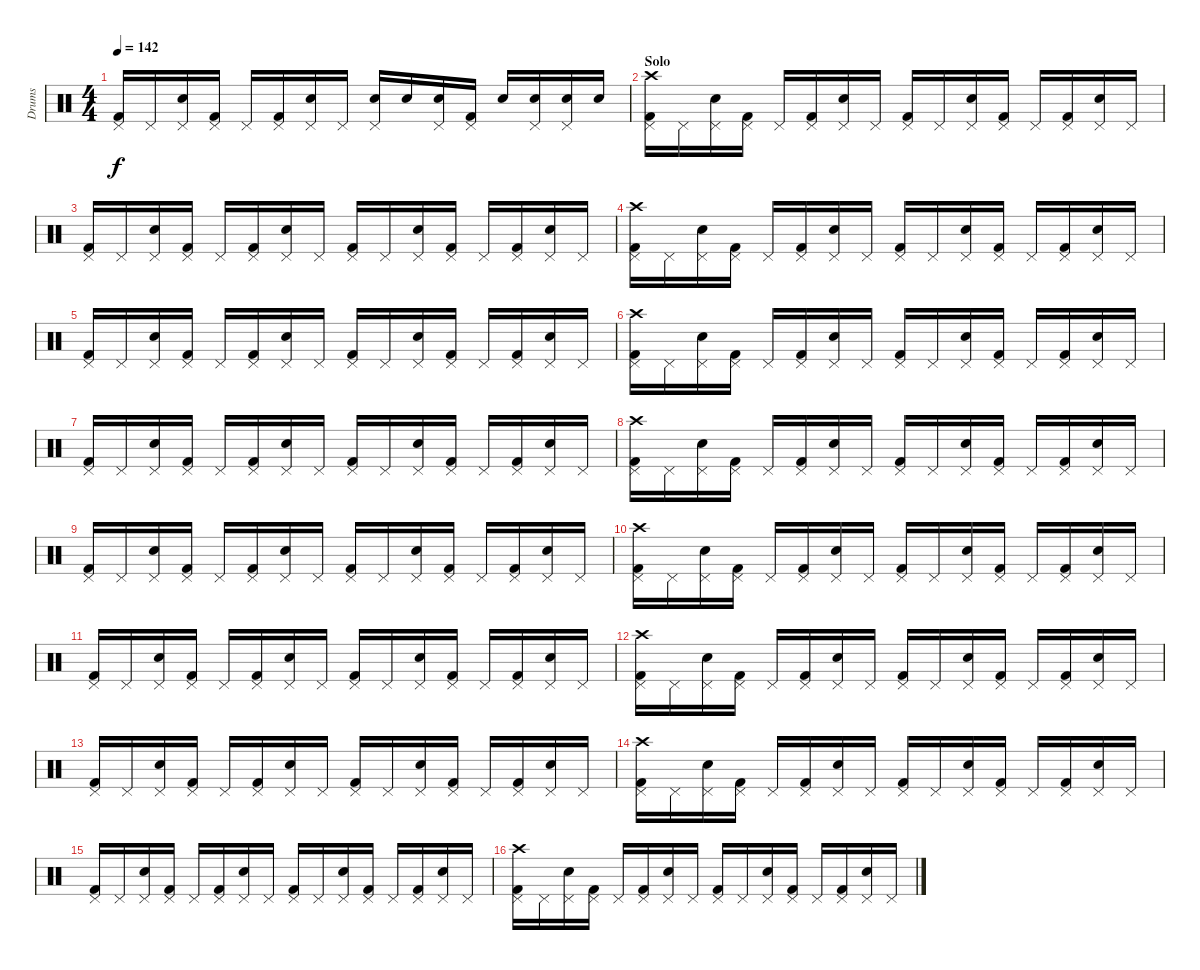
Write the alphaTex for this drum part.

\track ("Drums" "Drums") {instrument percussion}
\staff {score}
\articulation defaults
\ts (4 4)
\tempo 142
\clef neutral
\ks c
("Kick (hit) 2" "Pedal Hi-Hat (hit)").16{dy f} "Pedal Hi-Hat (hit)".16 ("Snare (hit) 2" "Pedal Hi-Hat (hit)").16 ("Kick (hit) 2" "Pedal Hi-Hat (hit)").16 "Pedal Hi-Hat (hit)".16 ("Kick (hit) 2" "Pedal Hi-Hat (hit)").16 ("Snare (hit) 2" "Pedal Hi-Hat (hit)").16 "Pedal Hi-Hat (hit)".16 ("Snare (hit) 2" "Pedal Hi-Hat (hit)").16 "Snare (hit) 2".16 ("Snare (hit) 2" "Pedal Hi-Hat (hit)").16 ("Kick (hit) 2" "Pedal Hi-Hat (hit)").16 "Snare (hit) 2".16 ("Snare (hit) 2" "Pedal Hi-Hat (hit)").16 ("Snare (hit) 2" "Pedal Hi-Hat (hit)").16 "Snare (hit) 2".16 |
\section ("" "Solo")
("Kick (hit) 2" "Pedal Hi-Hat (hit)" "Crash high (hit)").16 "Pedal Hi-Hat (hit)".16 ("Snare (hit) 2" "Pedal Hi-Hat (hit)").16 ("Kick (hit) 2" "Pedal Hi-Hat (hit)").16 "Pedal Hi-Hat (hit)".16 ("Kick (hit) 2" "Pedal Hi-Hat (hit)").16 ("Snare (hit) 2" "Pedal Hi-Hat (hit)").16 "Pedal Hi-Hat (hit)".16 ("Kick (hit) 2" "Pedal Hi-Hat (hit)").16 "Pedal Hi-Hat (hit)".16 ("Snare (hit) 2" "Pedal Hi-Hat (hit)").16 ("Kick (hit) 2" "Pedal Hi-Hat (hit)").16 "Pedal Hi-Hat (hit)".16 ("Kick (hit) 2" "Pedal Hi-Hat (hit)").16 ("Snare (hit) 2" "Pedal Hi-Hat (hit)").16 "Pedal Hi-Hat (hit)".16 |
("Kick (hit) 2" "Pedal Hi-Hat (hit)").16 "Pedal Hi-Hat (hit)".16 ("Snare (hit) 2" "Pedal Hi-Hat (hit)").16 ("Kick (hit) 2" "Pedal Hi-Hat (hit)").16 "Pedal Hi-Hat (hit)".16 ("Kick (hit) 2" "Pedal Hi-Hat (hit)").16 ("Snare (hit) 2" "Pedal Hi-Hat (hit)").16 "Pedal Hi-Hat (hit)".16 ("Kick (hit) 2" "Pedal Hi-Hat (hit)").16 "Pedal Hi-Hat (hit)".16 ("Snare (hit) 2" "Pedal Hi-Hat (hit)").16 ("Kick (hit) 2" "Pedal Hi-Hat (hit)").16 "Pedal Hi-Hat (hit)".16 ("Kick (hit) 2" "Pedal Hi-Hat (hit)").16 ("Snare (hit) 2" "Pedal Hi-Hat (hit)").16 "Pedal Hi-Hat (hit)".16 |
("Kick (hit) 2" "Pedal Hi-Hat (hit)" "Crash high (hit)").16 "Pedal Hi-Hat (hit)".16 ("Snare (hit) 2" "Pedal Hi-Hat (hit)").16 ("Kick (hit) 2" "Pedal Hi-Hat (hit)").16 "Pedal Hi-Hat (hit)".16 ("Kick (hit) 2" "Pedal Hi-Hat (hit)").16 ("Snare (hit) 2" "Pedal Hi-Hat (hit)").16 "Pedal Hi-Hat (hit)".16 ("Kick (hit) 2" "Pedal Hi-Hat (hit)").16 "Pedal Hi-Hat (hit)".16 ("Snare (hit) 2" "Pedal Hi-Hat (hit)").16 ("Kick (hit) 2" "Pedal Hi-Hat (hit)").16 "Pedal Hi-Hat (hit)".16 ("Kick (hit) 2" "Pedal Hi-Hat (hit)").16 ("Snare (hit) 2" "Pedal Hi-Hat (hit)").16 "Pedal Hi-Hat (hit)".16 |
("Kick (hit) 2" "Pedal Hi-Hat (hit)").16 "Pedal Hi-Hat (hit)".16 ("Snare (hit) 2" "Pedal Hi-Hat (hit)").16 ("Kick (hit) 2" "Pedal Hi-Hat (hit)").16 "Pedal Hi-Hat (hit)".16 ("Kick (hit) 2" "Pedal Hi-Hat (hit)").16 ("Snare (hit) 2" "Pedal Hi-Hat (hit)").16 "Pedal Hi-Hat (hit)".16 ("Kick (hit) 2" "Pedal Hi-Hat (hit)").16 "Pedal Hi-Hat (hit)".16 ("Snare (hit) 2" "Pedal Hi-Hat (hit)").16 ("Kick (hit) 2" "Pedal Hi-Hat (hit)").16 "Pedal Hi-Hat (hit)".16 ("Kick (hit) 2" "Pedal Hi-Hat (hit)").16 ("Snare (hit) 2" "Pedal Hi-Hat (hit)").16 "Pedal Hi-Hat (hit)".16 |
("Kick (hit) 2" "Pedal Hi-Hat (hit)" "Crash high (hit)").16 "Pedal Hi-Hat (hit)".16 ("Snare (hit) 2" "Pedal Hi-Hat (hit)").16 ("Kick (hit) 2" "Pedal Hi-Hat (hit)").16 "Pedal Hi-Hat (hit)".16 ("Kick (hit) 2" "Pedal Hi-Hat (hit)").16 ("Snare (hit) 2" "Pedal Hi-Hat (hit)").16 "Pedal Hi-Hat (hit)".16 ("Kick (hit) 2" "Pedal Hi-Hat (hit)").16 "Pedal Hi-Hat (hit)".16 ("Snare (hit) 2" "Pedal Hi-Hat (hit)").16 ("Kick (hit) 2" "Pedal Hi-Hat (hit)").16 "Pedal Hi-Hat (hit)".16 ("Kick (hit) 2" "Pedal Hi-Hat (hit)").16 ("Snare (hit) 2" "Pedal Hi-Hat (hit)").16 "Pedal Hi-Hat (hit)".16 |
("Kick (hit) 2" "Pedal Hi-Hat (hit)").16 "Pedal Hi-Hat (hit)".16 ("Snare (hit) 2" "Pedal Hi-Hat (hit)").16 ("Kick (hit) 2" "Pedal Hi-Hat (hit)").16 "Pedal Hi-Hat (hit)".16 ("Kick (hit) 2" "Pedal Hi-Hat (hit)").16 ("Snare (hit) 2" "Pedal Hi-Hat (hit)").16 "Pedal Hi-Hat (hit)".16 ("Kick (hit) 2" "Pedal Hi-Hat (hit)").16 "Pedal Hi-Hat (hit)".16 ("Snare (hit) 2" "Pedal Hi-Hat (hit)").16 ("Kick (hit) 2" "Pedal Hi-Hat (hit)").16 "Pedal Hi-Hat (hit)".16 ("Kick (hit) 2" "Pedal Hi-Hat (hit)").16 ("Snare (hit) 2" "Pedal Hi-Hat (hit)").16 "Pedal Hi-Hat (hit)".16 |
("Kick (hit) 2" "Pedal Hi-Hat (hit)" "Crash high (hit)").16 "Pedal Hi-Hat (hit)".16 ("Snare (hit) 2" "Pedal Hi-Hat (hit)").16 ("Kick (hit) 2" "Pedal Hi-Hat (hit)").16 "Pedal Hi-Hat (hit)".16 ("Kick (hit) 2" "Pedal Hi-Hat (hit)").16 ("Snare (hit) 2" "Pedal Hi-Hat (hit)").16 "Pedal Hi-Hat (hit)".16 ("Kick (hit) 2" "Pedal Hi-Hat (hit)").16 "Pedal Hi-Hat (hit)".16 ("Snare (hit) 2" "Pedal Hi-Hat (hit)").16 ("Kick (hit) 2" "Pedal Hi-Hat (hit)").16 "Pedal Hi-Hat (hit)".16 ("Kick (hit) 2" "Pedal Hi-Hat (hit)").16 ("Snare (hit) 2" "Pedal Hi-Hat (hit)").16 "Pedal Hi-Hat (hit)".16 |
("Kick (hit) 2" "Pedal Hi-Hat (hit)").16 "Pedal Hi-Hat (hit)".16 ("Snare (hit) 2" "Pedal Hi-Hat (hit)").16 ("Kick (hit) 2" "Pedal Hi-Hat (hit)").16 "Pedal Hi-Hat (hit)".16 ("Kick (hit) 2" "Pedal Hi-Hat (hit)").16 ("Snare (hit) 2" "Pedal Hi-Hat (hit)").16 "Pedal Hi-Hat (hit)".16 ("Kick (hit) 2" "Pedal Hi-Hat (hit)").16 "Pedal Hi-Hat (hit)".16 ("Snare (hit) 2" "Pedal Hi-Hat (hit)").16 ("Kick (hit) 2" "Pedal Hi-Hat (hit)").16 "Pedal Hi-Hat (hit)".16 ("Kick (hit) 2" "Pedal Hi-Hat (hit)").16 ("Snare (hit) 2" "Pedal Hi-Hat (hit)").16 "Pedal Hi-Hat (hit)".16 |
("Kick (hit) 2" "Pedal Hi-Hat (hit)" "Crash high (hit)").16 "Pedal Hi-Hat (hit)".16 ("Snare (hit) 2" "Pedal Hi-Hat (hit)").16 ("Kick (hit) 2" "Pedal Hi-Hat (hit)").16 "Pedal Hi-Hat (hit)".16 ("Kick (hit) 2" "Pedal Hi-Hat (hit)").16 ("Snare (hit) 2" "Pedal Hi-Hat (hit)").16 "Pedal Hi-Hat (hit)".16 ("Kick (hit) 2" "Pedal Hi-Hat (hit)").16 "Pedal Hi-Hat (hit)".16 ("Snare (hit) 2" "Pedal Hi-Hat (hit)").16 ("Kick (hit) 2" "Pedal Hi-Hat (hit)").16 "Pedal Hi-Hat (hit)".16 ("Kick (hit) 2" "Pedal Hi-Hat (hit)").16 ("Snare (hit) 2" "Pedal Hi-Hat (hit)").16 "Pedal Hi-Hat (hit)".16 |
("Kick (hit) 2" "Pedal Hi-Hat (hit)").16 "Pedal Hi-Hat (hit)".16 ("Snare (hit) 2" "Pedal Hi-Hat (hit)").16 ("Kick (hit) 2" "Pedal Hi-Hat (hit)").16 "Pedal Hi-Hat (hit)".16 ("Kick (hit) 2" "Pedal Hi-Hat (hit)").16 ("Snare (hit) 2" "Pedal Hi-Hat (hit)").16 "Pedal Hi-Hat (hit)".16 ("Kick (hit) 2" "Pedal Hi-Hat (hit)").16 "Pedal Hi-Hat (hit)".16 ("Snare (hit) 2" "Pedal Hi-Hat (hit)").16 ("Kick (hit) 2" "Pedal Hi-Hat (hit)").16 "Pedal Hi-Hat (hit)".16 ("Kick (hit) 2" "Pedal Hi-Hat (hit)").16 ("Snare (hit) 2" "Pedal Hi-Hat (hit)").16 "Pedal Hi-Hat (hit)".16 |
("Kick (hit) 2" "Pedal Hi-Hat (hit)" "Crash high (hit)").16 "Pedal Hi-Hat (hit)".16 ("Snare (hit) 2" "Pedal Hi-Hat (hit)").16 ("Kick (hit) 2" "Pedal Hi-Hat (hit)").16 "Pedal Hi-Hat (hit)".16 ("Kick (hit) 2" "Pedal Hi-Hat (hit)").16 ("Snare (hit) 2" "Pedal Hi-Hat (hit)").16 "Pedal Hi-Hat (hit)".16 ("Kick (hit) 2" "Pedal Hi-Hat (hit)").16 "Pedal Hi-Hat (hit)".16 ("Snare (hit) 2" "Pedal Hi-Hat (hit)").16 ("Kick (hit) 2" "Pedal Hi-Hat (hit)").16 "Pedal Hi-Hat (hit)".16 ("Kick (hit) 2" "Pedal Hi-Hat (hit)").16 ("Snare (hit) 2" "Pedal Hi-Hat (hit)").16 "Pedal Hi-Hat (hit)".16 |
("Kick (hit) 2" "Pedal Hi-Hat (hit)").16 "Pedal Hi-Hat (hit)".16 ("Snare (hit) 2" "Pedal Hi-Hat (hit)").16 ("Kick (hit) 2" "Pedal Hi-Hat (hit)").16 "Pedal Hi-Hat (hit)".16 ("Kick (hit) 2" "Pedal Hi-Hat (hit)").16 ("Snare (hit) 2" "Pedal Hi-Hat (hit)").16 "Pedal Hi-Hat (hit)".16 ("Kick (hit) 2" "Pedal Hi-Hat (hit)").16 "Pedal Hi-Hat (hit)".16 ("Snare (hit) 2" "Pedal Hi-Hat (hit)").16 ("Kick (hit) 2" "Pedal Hi-Hat (hit)").16 "Pedal Hi-Hat (hit)".16 ("Kick (hit) 2" "Pedal Hi-Hat (hit)").16 ("Snare (hit) 2" "Pedal Hi-Hat (hit)").16 "Pedal Hi-Hat (hit)".16 |
("Kick (hit) 2" "Pedal Hi-Hat (hit)" "Crash high (hit)").16 "Pedal Hi-Hat (hit)".16 ("Snare (hit) 2" "Pedal Hi-Hat (hit)").16 ("Kick (hit) 2" "Pedal Hi-Hat (hit)").16 "Pedal Hi-Hat (hit)".16 ("Kick (hit) 2" "Pedal Hi-Hat (hit)").16 ("Snare (hit) 2" "Pedal Hi-Hat (hit)").16 "Pedal Hi-Hat (hit)".16 ("Kick (hit) 2" "Pedal Hi-Hat (hit)").16 "Pedal Hi-Hat (hit)".16 ("Snare (hit) 2" "Pedal Hi-Hat (hit)").16 ("Kick (hit) 2" "Pedal Hi-Hat (hit)").16 "Pedal Hi-Hat (hit)".16 ("Kick (hit) 2" "Pedal Hi-Hat (hit)").16 ("Snare (hit) 2" "Pedal Hi-Hat (hit)").16 "Pedal Hi-Hat (hit)".16 |
("Kick (hit) 2" "Pedal Hi-Hat (hit)").16 "Pedal Hi-Hat (hit)".16 ("Snare (hit) 2" "Pedal Hi-Hat (hit)").16 ("Kick (hit) 2" "Pedal Hi-Hat (hit)").16 "Pedal Hi-Hat (hit)".16 ("Kick (hit) 2" "Pedal Hi-Hat (hit)").16 ("Snare (hit) 2" "Pedal Hi-Hat (hit)").16 "Pedal Hi-Hat (hit)".16 ("Kick (hit) 2" "Pedal Hi-Hat (hit)").16 "Pedal Hi-Hat (hit)".16 ("Snare (hit) 2" "Pedal Hi-Hat (hit)").16 ("Kick (hit) 2" "Pedal Hi-Hat (hit)").16 "Pedal Hi-Hat (hit)".16 ("Kick (hit) 2" "Pedal Hi-Hat (hit)").16 ("Snare (hit) 2" "Pedal Hi-Hat (hit)").16 "Pedal Hi-Hat (hit)".16 |
("Kick (hit) 2" "Pedal Hi-Hat (hit)" "Crash high (hit)").16 "Pedal Hi-Hat (hit)".16 ("Snare (hit) 2" "Pedal Hi-Hat (hit)").16 ("Kick (hit) 2" "Pedal Hi-Hat (hit)").16 "Pedal Hi-Hat (hit)".16 ("Kick (hit) 2" "Pedal Hi-Hat (hit)").16 ("Snare (hit) 2" "Pedal Hi-Hat (hit)").16 "Pedal Hi-Hat (hit)".16 ("Kick (hit) 2" "Pedal Hi-Hat (hit)").16 "Pedal Hi-Hat (hit)".16 ("Snare (hit) 2" "Pedal Hi-Hat (hit)").16 ("Kick (hit) 2" "Pedal Hi-Hat (hit)").16 "Pedal Hi-Hat (hit)".16 ("Kick (hit) 2" "Pedal Hi-Hat (hit)").16 ("Snare (hit) 2" "Pedal Hi-Hat (hit)").16 "Pedal Hi-Hat (hit)".16
